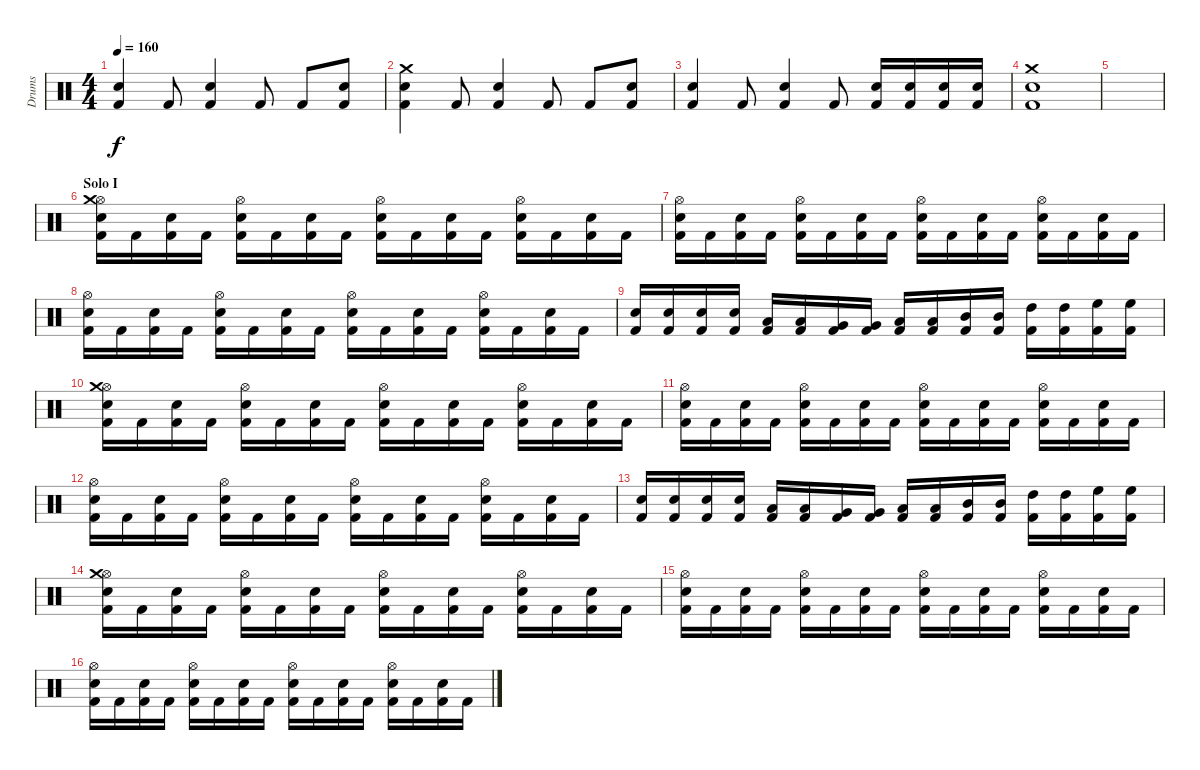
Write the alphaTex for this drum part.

\track ("Drums" "Drums") {instrument percussion}
\staff {score}
\articulation defaults
\ts (4 4)
\tempo 160
\clef neutral
\ks c
("Kick (hit) 2" "Snare (hit) 2").4{dy f} "Kick (hit) 2".8 ("Kick (hit) 2" "Snare (hit) 2").4 "Kick (hit) 2".8 "Kick (hit) 2".8 ("Kick (hit) 2" "Snare (hit) 2").8 |
("Kick (hit) 2" "Snare (hit) 2" "Crash medium (hit)").4 "Kick (hit) 2".8 ("Kick (hit) 2" "Snare (hit) 2").4 "Kick (hit) 2".8 "Kick (hit) 2".8 ("Kick (hit) 2" "Snare (hit) 2").8 |
("Kick (hit) 2" "Snare (hit) 2").4 "Kick (hit) 2".8 ("Kick (hit) 2" "Snare (hit) 2").4 "Kick (hit) 2".8 ("Kick (hit) 2" "Snare (hit) 2").16 ("Kick (hit) 2" "Snare (hit) 2").16 ("Kick (hit) 2" "Snare (hit) 2").16 ("Kick (hit) 2" "Snare (hit) 2").16 |
("Kick (hit) 2" "Snare (hit) 2" "Crash medium (hit)").1 |
|
\section ("" "Solo I")
("Kick (hit) 2" "Snare (hit) 2" "Hi-Hat (open)" "Crash medium (hit)").16 "Kick (hit) 2".16 ("Kick (hit) 2" "Snare (hit) 2").16 "Kick (hit) 2".16 ("Kick (hit) 2" "Snare (hit) 2" "Hi-Hat (open)").16 "Kick (hit) 2".16 ("Kick (hit) 2" "Snare (hit) 2").16 "Kick (hit) 2".16 ("Kick (hit) 2" "Snare (hit) 2" "Hi-Hat (open)").16 "Kick (hit) 2".16 ("Kick (hit) 2" "Snare (hit) 2").16 "Kick (hit) 2".16 ("Kick (hit) 2" "Snare (hit) 2" "Hi-Hat (open)").16 "Kick (hit) 2".16 ("Kick (hit) 2" "Snare (hit) 2").16 "Kick (hit) 2".16 |
("Kick (hit) 2" "Snare (hit) 2" "Hi-Hat (open)").16 "Kick (hit) 2".16 ("Kick (hit) 2" "Snare (hit) 2").16 "Kick (hit) 2".16 ("Kick (hit) 2" "Snare (hit) 2" "Hi-Hat (open)").16 "Kick (hit) 2".16 ("Kick (hit) 2" "Snare (hit) 2").16 "Kick (hit) 2".16 ("Kick (hit) 2" "Snare (hit) 2" "Hi-Hat (open)").16 "Kick (hit) 2".16 ("Kick (hit) 2" "Snare (hit) 2").16 "Kick (hit) 2".16 ("Kick (hit) 2" "Snare (hit) 2" "Hi-Hat (open)").16 "Kick (hit) 2".16 ("Kick (hit) 2" "Snare (hit) 2").16 "Kick (hit) 2".16 |
("Kick (hit) 2" "Snare (hit) 2" "Hi-Hat (open)").16 "Kick (hit) 2".16 ("Kick (hit) 2" "Snare (hit) 2").16 "Kick (hit) 2".16 ("Kick (hit) 2" "Snare (hit) 2" "Hi-Hat (open)").16 "Kick (hit) 2".16 ("Kick (hit) 2" "Snare (hit) 2").16 "Kick (hit) 2".16 ("Kick (hit) 2" "Snare (hit) 2" "Hi-Hat (open)").16 "Kick (hit) 2".16 ("Kick (hit) 2" "Snare (hit) 2").16 "Kick (hit) 2".16 ("Kick (hit) 2" "Snare (hit) 2" "Hi-Hat (open)").16 "Kick (hit) 2".16 ("Kick (hit) 2" "Snare (hit) 2").16 "Kick (hit) 2".16 |
("Kick (hit) 2" "Snare (hit) 2").16 ("Kick (hit) 2" "Snare (hit) 2").16 ("Kick (hit) 2" "Snare (hit) 2").16 ("Kick (hit) 2" "Snare (hit) 2").16 ("Kick (hit) 2" "Low Floor Tom (hit)").16 ("Kick (hit) 2" "Low Floor Tom (hit)").16 ("Kick (hit) 2" "Very Low Tom (hit)").16 ("Kick (hit) 2" "Very Low Tom (hit)").16 ("Kick (hit) 2" "Low Tom (hit)").16 ("Kick (hit) 2" "Low Tom (hit)").16 ("Kick (hit) 2" "Mid Tom (hit)").16 ("Kick (hit) 2" "Mid Tom (hit)").16 ("Kick (hit) 2" "High Tom (hit)").16 ("Kick (hit) 2" "High Tom (hit)").16 ("Kick (hit) 2" "High Floor Tom (hit)").16 ("Kick (hit) 2" "High Floor Tom (hit)").16 |
("Kick (hit) 2" "Snare (hit) 2" "Hi-Hat (open)" "Crash medium (hit)").16 "Kick (hit) 2".16 ("Kick (hit) 2" "Snare (hit) 2").16 "Kick (hit) 2".16 ("Kick (hit) 2" "Snare (hit) 2" "Hi-Hat (open)").16 "Kick (hit) 2".16 ("Kick (hit) 2" "Snare (hit) 2").16 "Kick (hit) 2".16 ("Kick (hit) 2" "Snare (hit) 2" "Hi-Hat (open)").16 "Kick (hit) 2".16 ("Kick (hit) 2" "Snare (hit) 2").16 "Kick (hit) 2".16 ("Kick (hit) 2" "Snare (hit) 2" "Hi-Hat (open)").16 "Kick (hit) 2".16 ("Kick (hit) 2" "Snare (hit) 2").16 "Kick (hit) 2".16 |
("Kick (hit) 2" "Snare (hit) 2" "Hi-Hat (open)").16 "Kick (hit) 2".16 ("Kick (hit) 2" "Snare (hit) 2").16 "Kick (hit) 2".16 ("Kick (hit) 2" "Snare (hit) 2" "Hi-Hat (open)").16 "Kick (hit) 2".16 ("Kick (hit) 2" "Snare (hit) 2").16 "Kick (hit) 2".16 ("Kick (hit) 2" "Snare (hit) 2" "Hi-Hat (open)").16 "Kick (hit) 2".16 ("Kick (hit) 2" "Snare (hit) 2").16 "Kick (hit) 2".16 ("Kick (hit) 2" "Snare (hit) 2" "Hi-Hat (open)").16 "Kick (hit) 2".16 ("Kick (hit) 2" "Snare (hit) 2").16 "Kick (hit) 2".16 |
("Kick (hit) 2" "Snare (hit) 2" "Hi-Hat (open)").16 "Kick (hit) 2".16 ("Kick (hit) 2" "Snare (hit) 2").16 "Kick (hit) 2".16 ("Kick (hit) 2" "Snare (hit) 2" "Hi-Hat (open)").16 "Kick (hit) 2".16 ("Kick (hit) 2" "Snare (hit) 2").16 "Kick (hit) 2".16 ("Kick (hit) 2" "Snare (hit) 2" "Hi-Hat (open)").16 "Kick (hit) 2".16 ("Kick (hit) 2" "Snare (hit) 2").16 "Kick (hit) 2".16 ("Kick (hit) 2" "Snare (hit) 2" "Hi-Hat (open)").16 "Kick (hit) 2".16 ("Kick (hit) 2" "Snare (hit) 2").16 "Kick (hit) 2".16 |
("Kick (hit) 2" "Snare (hit) 2").16 ("Kick (hit) 2" "Snare (hit) 2").16 ("Kick (hit) 2" "Snare (hit) 2").16 ("Kick (hit) 2" "Snare (hit) 2").16 ("Kick (hit) 2" "Low Floor Tom (hit)").16 ("Kick (hit) 2" "Low Floor Tom (hit)").16 ("Kick (hit) 2" "Very Low Tom (hit)").16 ("Kick (hit) 2" "Very Low Tom (hit)").16 ("Kick (hit) 2" "Low Tom (hit)").16 ("Kick (hit) 2" "Low Tom (hit)").16 ("Kick (hit) 2" "Mid Tom (hit)").16 ("Kick (hit) 2" "Mid Tom (hit)").16 ("Kick (hit) 2" "High Tom (hit)").16 ("Kick (hit) 2" "High Tom (hit)").16 ("Kick (hit) 2" "High Floor Tom (hit)").16 ("Kick (hit) 2" "High Floor Tom (hit)").16 |
("Kick (hit) 2" "Snare (hit) 2" "Hi-Hat (open)" "Crash medium (hit)").16 "Kick (hit) 2".16 ("Kick (hit) 2" "Snare (hit) 2").16 "Kick (hit) 2".16 ("Kick (hit) 2" "Snare (hit) 2" "Hi-Hat (open)").16 "Kick (hit) 2".16 ("Kick (hit) 2" "Snare (hit) 2").16 "Kick (hit) 2".16 ("Kick (hit) 2" "Snare (hit) 2" "Hi-Hat (open)").16 "Kick (hit) 2".16 ("Kick (hit) 2" "Snare (hit) 2").16 "Kick (hit) 2".16 ("Kick (hit) 2" "Snare (hit) 2" "Hi-Hat (open)").16 "Kick (hit) 2".16 ("Kick (hit) 2" "Snare (hit) 2").16 "Kick (hit) 2".16 |
("Kick (hit) 2" "Snare (hit) 2" "Hi-Hat (open)").16 "Kick (hit) 2".16 ("Kick (hit) 2" "Snare (hit) 2").16 "Kick (hit) 2".16 ("Kick (hit) 2" "Snare (hit) 2" "Hi-Hat (open)").16 "Kick (hit) 2".16 ("Kick (hit) 2" "Snare (hit) 2").16 "Kick (hit) 2".16 ("Kick (hit) 2" "Snare (hit) 2" "Hi-Hat (open)").16 "Kick (hit) 2".16 ("Kick (hit) 2" "Snare (hit) 2").16 "Kick (hit) 2".16 ("Kick (hit) 2" "Snare (hit) 2" "Hi-Hat (open)").16 "Kick (hit) 2".16 ("Kick (hit) 2" "Snare (hit) 2").16 "Kick (hit) 2".16 |
("Kick (hit) 2" "Snare (hit) 2" "Hi-Hat (open)").16 "Kick (hit) 2".16 ("Kick (hit) 2" "Snare (hit) 2").16 "Kick (hit) 2".16 ("Kick (hit) 2" "Snare (hit) 2" "Hi-Hat (open)").16 "Kick (hit) 2".16 ("Kick (hit) 2" "Snare (hit) 2").16 "Kick (hit) 2".16 ("Kick (hit) 2" "Snare (hit) 2" "Hi-Hat (open)").16 "Kick (hit) 2".16 ("Kick (hit) 2" "Snare (hit) 2").16 "Kick (hit) 2".16 ("Kick (hit) 2" "Snare (hit) 2" "Hi-Hat (open)").16 "Kick (hit) 2".16 ("Kick (hit) 2" "Snare (hit) 2").16 "Kick (hit) 2".16
